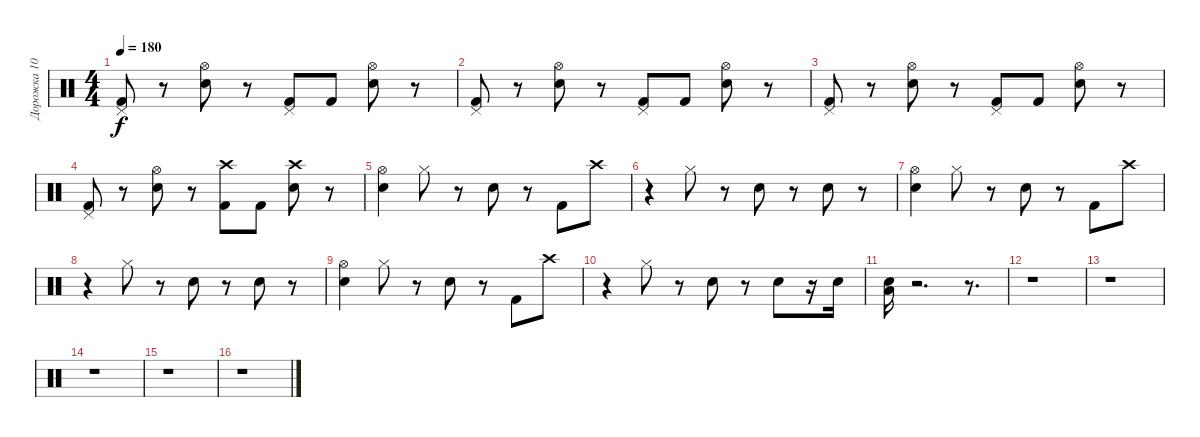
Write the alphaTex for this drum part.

\track ("Дорожка 10" "Дорожка 10") {instrument percussion}
\staff {score}
\articulation defaults
\ts (4 4)
\tempo 180
\clef neutral
\ks c
("Kick (hit) 2" "Pedal Hi-Hat (hit)").8{dy f} r.8 ("Snare (hit) 2" "Hi-Hat (open)").8 r.8 ("Kick (hit) 2" "Pedal Hi-Hat (hit)").8 "Kick (hit) 2".8 ("Snare (hit) 2" "Hi-Hat (open)").8 r.8 |
("Kick (hit) 2" "Pedal Hi-Hat (hit)").8 r.8 ("Snare (hit) 2" "Hi-Hat (open)").8 r.8 ("Kick (hit) 2" "Pedal Hi-Hat (hit)").8 "Kick (hit) 2".8 ("Snare (hit) 2" "Hi-Hat (open)").8 r.8 |
("Kick (hit) 2" "Pedal Hi-Hat (hit)").8 r.8 ("Snare (hit) 2" "Hi-Hat (open)").8 r.8 ("Kick (hit) 2" "Pedal Hi-Hat (hit)").8 "Kick (hit) 2".8 ("Snare (hit) 2" "Hi-Hat (open)").8 r.8 |
("Kick (hit) 2" "Pedal Hi-Hat (hit)").8 r.8 ("Snare (hit) 2" "Hi-Hat (open)").8 r.8 ("Kick (hit) 2" "Crash high (hit)").8 "Kick (hit) 2".8 ("Snare (hit) 2" "Crash high (hit)").8 r.8 |
("Snare (hit) 2" "Hi-Hat (open)").4 "Hi-Hat (closed)".8 r.8 "Snare (hit) 2".8 r.8 "Kick (hit) 2".8 "Crash high (hit)".8 |
r.4 "Hi-Hat (closed)".8 r.8 "Snare (hit) 2".8 r.8 "Snare (hit) 2".8 r.8 |
("Snare (hit) 2" "Hi-Hat (open)").4 "Hi-Hat (closed)".8 r.8 "Snare (hit) 2".8 r.8 "Kick (hit) 2".8 "Crash high (hit)".8 |
r.4 "Hi-Hat (closed)".8 r.8 "Snare (hit) 2".8 r.8 "Snare (hit) 2".8 r.8 |
("Snare (hit) 2" "Hi-Hat (open)").4 "Hi-Hat (closed)".8 r.8 "Snare (hit) 2".8 r.8 "Kick (hit) 2".8 "Crash high (hit)".8 |
r.4 "Hi-Hat (closed)".8 r.8 "Snare (hit) 2".8 r.8 "Snare (hit) 2".8 r.16 "Snare (hit) 2".16 |
("Electric Snare (hit)" "Low Tom (hit)").16 r.2{d} r.8{d} |
r.1 |
r.1 |
r.1 |
r.1 |
r.1
